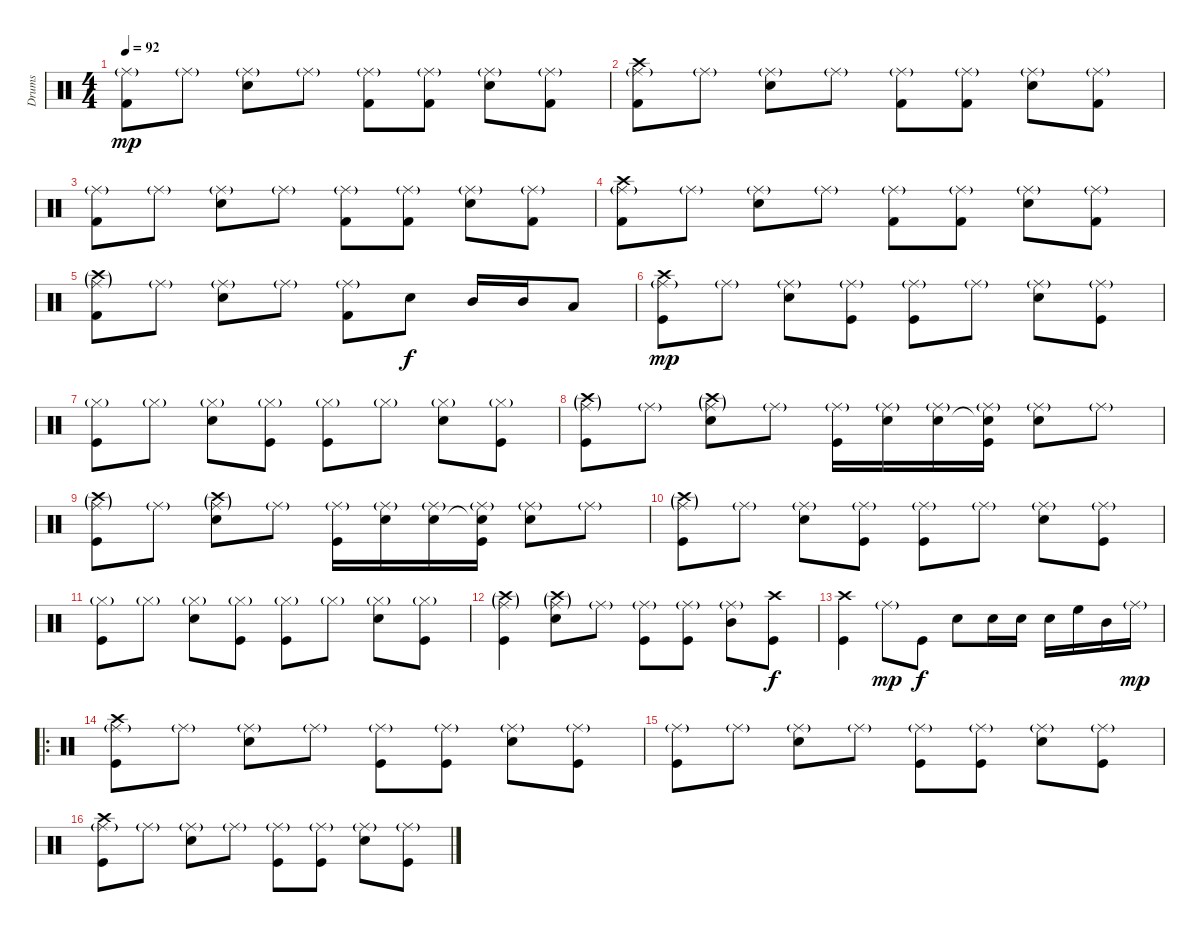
\track ("Drums" "Drums") {instrument percussion}
\staff {score}
\articulation defaults
\ts (4 4)
\tempo 92
\clef neutral
\ks c
("Ride (middle)"{g} "Kick (hit) 2").8{dy mp} "Ride (middle)"{g}.8 ("Ride (middle)"{g} "Snare (hit) 2").8 "Ride (middle)"{g}.8 ("Ride (middle)"{g} "Kick (hit) 2").8 ("Ride (middle)"{g} "Kick (hit) 2").8 ("Ride (middle)"{g} "Snare (hit) 2").8 ("Ride (middle)"{g} "Kick (hit) 2").8 |
("Ride (middle)"{g} "Crash high (hit)" "Kick (hit) 2").8 "Ride (middle)"{g}.8 ("Ride (middle)"{g} "Snare (hit) 2").8 "Ride (middle)"{g}.8 ("Ride (middle)"{g} "Kick (hit) 2").8 ("Ride (middle)"{g} "Kick (hit) 2").8 ("Ride (middle)"{g} "Snare (hit) 2").8 ("Ride (middle)"{g} "Kick (hit) 2").8 |
("Ride (middle)"{g} "Kick (hit) 2").8 "Ride (middle)"{g}.8 ("Ride (middle)"{g} "Snare (hit) 2").8 "Ride (middle)"{g}.8 ("Ride (middle)"{g} "Kick (hit) 2").8 ("Ride (middle)"{g} "Kick (hit) 2").8 ("Ride (middle)"{g} "Snare (hit) 2").8 ("Ride (middle)"{g} "Kick (hit) 2").8 |
("Ride (middle)"{g} "Crash high (hit)" "Kick (hit) 2").8 "Ride (middle)"{g}.8 ("Ride (middle)"{g} "Snare (hit) 2").8 "Ride (middle)"{g}.8 ("Ride (middle)"{g} "Kick (hit) 2").8 ("Ride (middle)"{g} "Kick (hit) 2").8 ("Ride (middle)"{g} "Snare (hit) 2").8 ("Ride (middle)"{g} "Kick (hit) 2").8 |
("Ride (middle)"{g} "Crash high (hit)"{g} "Kick (hit) 2").8 "Ride (middle)"{g}.8 ("Ride (middle)"{g} "Snare (hit) 2").8 "Ride (middle)"{g}.8 ("Ride (middle)"{g} "Kick (hit) 2").8 "Snare (hit) 2".8{dy f} "Mid Tom (hit)".16 "Mid Tom (hit)".16 "Low Tom (hit)".8 |
("Ride (middle)"{g} "Crash high (hit)" "Kick (hit)").8{dy mp} "Ride (middle)"{g}.8 ("Ride (middle)"{g} "Snare (hit) 2").8 ("Ride (middle)"{g} "Kick (hit)").8 ("Ride (middle)"{g} "Kick (hit)").8 "Ride (middle)"{g}.8 ("Ride (middle)"{g} "Snare (hit) 2").8 ("Ride (middle)"{g} "Kick (hit)").8 |
("Hi-Hat (closed)"{g} "Kick (hit)").8 "Hi-Hat (closed)"{g}.8 ("Hi-Hat (closed)"{g} "Snare (hit) 2").8 ("Hi-Hat (closed)"{g} "Kick (hit)").8 ("Hi-Hat (closed)"{g} "Kick (hit)").8 "Hi-Hat (closed)"{g}.8 ("Hi-Hat (closed)"{g} "Snare (hit) 2").8 ("Hi-Hat (closed)"{g} "Kick (hit)").8 |
("Ride (middle)"{g} "Crash high (hit)"{g} "Kick (hit)").8 "Ride (middle)"{g}.8 ("Ride (middle)"{g} "Crash high (hit)"{g} "Snare (hit) 2").8 "Ride (middle)"{g}.8 ("Ride (middle)"{g} "Kick (hit)").16 ("Ride (middle)"{g} "Snare (hit) 2").16 ("Ride (middle)"{g} "Snare (hit) 2").16 ("Ride (middle)"{g} "Snare (hit)"{t} "Kick (hit)").16 ("Ride (middle)"{g} "Snare (hit) 2").8 "Ride (middle)"{g}.8 |
("Ride (middle)"{g} "Crash high (hit)"{g} "Kick (hit)").8 "Ride (middle)"{g}.8 ("Ride (middle)"{g} "Crash high (hit)"{g} "Snare (hit) 2").8 "Ride (middle)"{g}.8 ("Ride (middle)"{g} "Kick (hit)").16 ("Ride (middle)"{g} "Snare (hit) 2").16 ("Ride (middle)"{g} "Snare (hit) 2").16 ("Ride (middle)"{g} "Snare (hit)"{t} "Kick (hit)").16 ("Ride (middle)"{g} "Snare (hit) 2").8 "Ride (middle)"{g}.8 |
("Ride (middle)"{g} "Crash high (hit)"{g} "Kick (hit)").8 "Ride (middle)"{g}.8 ("Ride (middle)"{g} "Snare (hit) 2").8 ("Ride (middle)"{g} "Kick (hit)").8 ("Ride (middle)"{g} "Kick (hit)").8 "Ride (middle)"{g}.8 ("Ride (middle)"{g} "Snare (hit) 2").8 ("Ride (middle)"{g} "Kick (hit)").8 |
("Hi-Hat (closed)"{g} "Kick (hit)").8 "Hi-Hat (closed)"{g}.8 ("Hi-Hat (closed)"{g} "Snare (hit) 2").8 ("Hi-Hat (closed)"{g} "Kick (hit)").8 ("Hi-Hat (closed)"{g} "Kick (hit)").8 "Hi-Hat (closed)"{g}.8 ("Hi-Hat (closed)"{g} "Snare (hit) 2").8 ("Hi-Hat (closed)"{g} "Kick (hit)").8 |
("Ride (middle)"{g} "Crash high (hit)"{g} "Kick (hit)").4 ("Ride (middle)"{g} "Crash high (hit)"{g} "Snare (hit) 2").8 "Ride (middle)"{g}.8 ("Ride (middle)"{g} "Kick (hit)").8 ("Ride (middle)"{g} "Kick (hit)").8 ("Ride (middle)"{g} "Mid Tom (hit)").8 ("Crash high (hit)" "Kick (hit)").8{dy f} |
("Crash high (hit)" "Kick (hit)").4 "Ride (middle)"{g}.8{dy mp} "Kick (hit)".8{dy f} "Snare (hit) 2".8 "Snare (hit) 2".16 "Snare (hit) 2".16 "Snare (hit) 2".16 "High Floor Tom (hit)".16 "Mid Tom (hit)".16 "Ride (middle)"{g}.16{dy mp} |
\ro
("Ride (middle)"{g} "Crash high (hit)" "Kick (hit)").8 "Ride (middle)"{g}.8 ("Ride (middle)"{g} "Snare (hit) 2").8 "Ride (middle)"{g}.8 ("Ride (middle)"{g} "Kick (hit)").8 ("Ride (middle)"{g} "Kick (hit)").8 ("Ride (middle)"{g} "Snare (hit) 2").8 ("Ride (middle)"{g} "Kick (hit)").8 |
("Ride (middle)"{g} "Kick (hit)").8 "Ride (middle)"{g}.8 ("Ride (middle)"{g} "Snare (hit) 2").8 "Ride (middle)"{g}.8 ("Ride (middle)"{g} "Kick (hit)").8 ("Ride (middle)"{g} "Kick (hit)").8 ("Ride (middle)"{g} "Snare (hit) 2").8 ("Ride (middle)"{g} "Kick (hit)").8 |
("Ride (middle)"{g} "Crash high (hit)" "Kick (hit)").8 "Ride (middle)"{g}.8 ("Ride (middle)"{g} "Snare (hit) 2").8 "Ride (middle)"{g}.8 ("Ride (middle)"{g} "Kick (hit)").8 ("Ride (middle)"{g} "Kick (hit)").8 ("Ride (middle)"{g} "Snare (hit) 2").8 ("Ride (middle)"{g} "Kick (hit)").8
